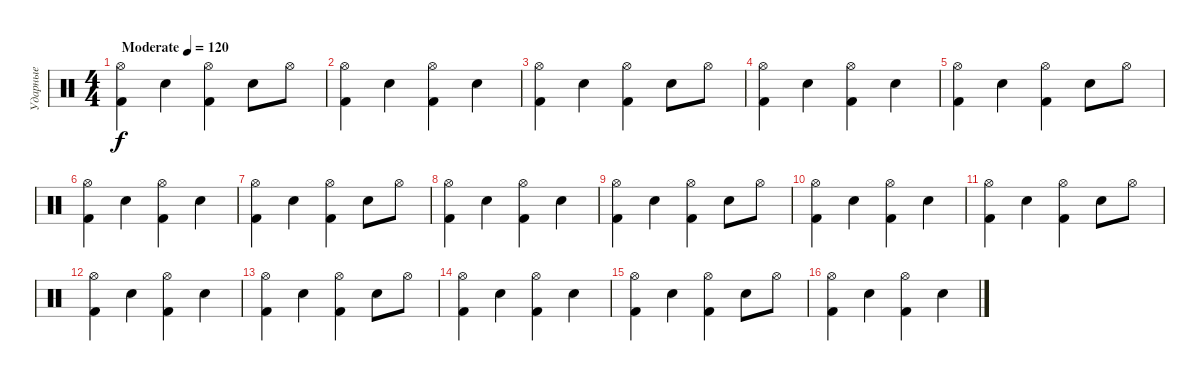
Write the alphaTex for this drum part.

\track ("Ударные" "Ударные") {instrument percussion}
\staff {score}
\articulation defaults
\ts (4 4)
\tempo (120 "Moderate")
\clef neutral
\ks c
("Hi-Hat (open)" "Kick (hit) 2").4{dy f} "Electric Snare (hit)".4 ("Hi-Hat (open)" "Kick (hit) 2").4 "Electric Snare (hit)".8 "Hi-Hat (open)".8 |
("Hi-Hat (open)" "Kick (hit) 2").4 "Electric Snare (hit)".4 ("Hi-Hat (open)" "Kick (hit) 2").4 "Electric Snare (hit)".4 |
("Hi-Hat (open)" "Kick (hit) 2").4 "Electric Snare (hit)".4 ("Hi-Hat (open)" "Kick (hit) 2").4 "Electric Snare (hit)".8 "Hi-Hat (open)".8 |
("Hi-Hat (open)" "Kick (hit) 2").4 "Electric Snare (hit)".4 ("Hi-Hat (open)" "Kick (hit) 2").4 "Electric Snare (hit)".4 |
("Hi-Hat (open)" "Kick (hit) 2").4 "Electric Snare (hit)".4 ("Hi-Hat (open)" "Kick (hit) 2").4 "Electric Snare (hit)".8 "Hi-Hat (open)".8 |
("Hi-Hat (open)" "Kick (hit) 2").4 "Electric Snare (hit)".4 ("Hi-Hat (open)" "Kick (hit) 2").4 "Electric Snare (hit)".4 |
("Hi-Hat (open)" "Kick (hit) 2").4 "Electric Snare (hit)".4 ("Hi-Hat (open)" "Kick (hit) 2").4 "Electric Snare (hit)".8 "Hi-Hat (open)".8 |
("Hi-Hat (open)" "Kick (hit) 2").4 "Electric Snare (hit)".4 ("Hi-Hat (open)" "Kick (hit) 2").4 "Electric Snare (hit)".4 |
("Hi-Hat (open)" "Kick (hit) 2").4 "Electric Snare (hit)".4 ("Hi-Hat (open)" "Kick (hit) 2").4 "Electric Snare (hit)".8 "Hi-Hat (open)".8 |
("Hi-Hat (open)" "Kick (hit) 2").4 "Electric Snare (hit)".4 ("Hi-Hat (open)" "Kick (hit) 2").4 "Electric Snare (hit)".4 |
("Hi-Hat (open)" "Kick (hit) 2").4 "Electric Snare (hit)".4 ("Hi-Hat (open)" "Kick (hit) 2").4 "Electric Snare (hit)".8 "Hi-Hat (open)".8 |
("Hi-Hat (open)" "Kick (hit) 2").4 "Electric Snare (hit)".4 ("Hi-Hat (open)" "Kick (hit) 2").4 "Electric Snare (hit)".4 |
("Hi-Hat (open)" "Kick (hit) 2").4 "Electric Snare (hit)".4 ("Hi-Hat (open)" "Kick (hit) 2").4 "Electric Snare (hit)".8 "Hi-Hat (open)".8 |
("Hi-Hat (open)" "Kick (hit) 2").4 "Electric Snare (hit)".4 ("Hi-Hat (open)" "Kick (hit) 2").4 "Electric Snare (hit)".4 |
("Hi-Hat (open)" "Kick (hit) 2").4 "Electric Snare (hit)".4 ("Hi-Hat (open)" "Kick (hit) 2").4 "Electric Snare (hit)".8 "Hi-Hat (open)".8 |
("Hi-Hat (open)" "Kick (hit) 2").4 "Electric Snare (hit)".4 ("Hi-Hat (open)" "Kick (hit) 2").4 "Electric Snare (hit)".4
